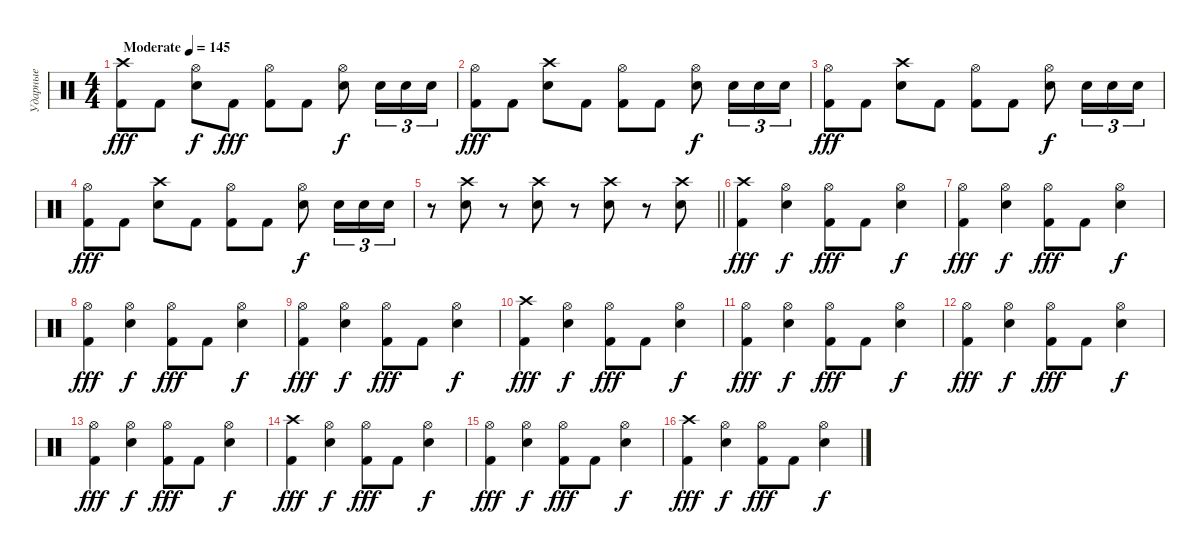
\track ("Ударные" "Ударные") {instrument percussion}
\staff {score}
\articulation defaults
\ts (4 4)
\tempo (145 "Moderate")
\clef neutral
\ks c
("Kick (hit) 2" "Crash high (hit)").8{dy fff} "Kick (hit) 2".8 ("Snare (hit) 2" "Hi-Hat (open)").8{dy f} "Kick (hit) 2".8{dy fff} ("Kick (hit) 2" "Hi-Hat (open)").8 "Kick (hit) 2".8 ("Snare (hit) 2" "Hi-Hat (open)").8{dy f} "Snare (hit) 2".16{tu (3 2)} "Snare (hit) 2".16{tu (3 2)} "Snare (hit) 2".16{tu (3 2)} |
("Kick (hit) 2" "Hi-Hat (open)").8{dy fff} "Kick (hit) 2".8 ("Snare (hit) 2" "Crash high (hit)").8 "Kick (hit) 2".8 ("Kick (hit) 2" "Hi-Hat (open)").8 "Kick (hit) 2".8 ("Snare (hit) 2" "Hi-Hat (open)").8{dy f} "Snare (hit) 2".16{tu (3 2)} "Snare (hit) 2".16{tu (3 2)} "Snare (hit) 2".16{tu (3 2)} |
("Kick (hit) 2" "Hi-Hat (open)").8{dy fff} "Kick (hit) 2".8 ("Snare (hit) 2" "Crash high (hit)").8 "Kick (hit) 2".8 ("Kick (hit) 2" "Hi-Hat (open)").8 "Kick (hit) 2".8 ("Snare (hit) 2" "Hi-Hat (open)").8{dy f} "Snare (hit) 2".16{tu (3 2)} "Snare (hit) 2".16{tu (3 2)} "Snare (hit) 2".16{tu (3 2)} |
("Kick (hit) 2" "Hi-Hat (open)").8{dy fff} "Kick (hit) 2".8 ("Snare (hit) 2" "Crash high (hit)").8 "Kick (hit) 2".8 ("Kick (hit) 2" "Hi-Hat (open)").8 "Kick (hit) 2".8 ("Snare (hit) 2" "Hi-Hat (open)").8{dy f} "Snare (hit) 2".16{tu (3 2)} "Snare (hit) 2".16{tu (3 2)} "Snare (hit) 2".16{tu (3 2)} |
\barLineRight lightlight
r.8 ("Snare (hit) 2" "Crash high (hit)").8 r.8 ("Snare (hit) 2" "Crash high (hit)").8 r.8 ("Snare (hit) 2" "Crash high (hit)").8 r.8 ("Snare (hit) 2" "Crash high (hit)").8 |
("Kick (hit) 2" "Crash high (hit)").4{dy fff} ("Snare (hit) 2" "Hi-Hat (open)").4{dy f} ("Kick (hit) 2" "Hi-Hat (open)").8{dy fff} "Kick (hit) 2".8 ("Snare (hit) 2" "Hi-Hat (open)").4{dy f} |
("Kick (hit) 2" "Hi-Hat (open)").4{dy fff} ("Snare (hit) 2" "Hi-Hat (open)").4{dy f} ("Kick (hit) 2" "Hi-Hat (open)").8{dy fff} "Kick (hit) 2".8 ("Snare (hit) 2" "Hi-Hat (open)").4{dy f} |
("Kick (hit) 2" "Hi-Hat (open)").4{dy fff} ("Snare (hit) 2" "Hi-Hat (open)").4{dy f} ("Kick (hit) 2" "Hi-Hat (open)").8{dy fff} "Kick (hit) 2".8 ("Snare (hit) 2" "Hi-Hat (open)").4{dy f} |
("Kick (hit) 2" "Hi-Hat (open)").4{dy fff} ("Snare (hit) 2" "Hi-Hat (open)").4{dy f} ("Kick (hit) 2" "Hi-Hat (open)").8{dy fff} "Kick (hit) 2".8 ("Snare (hit) 2" "Hi-Hat (open)").4{dy f} |
("Kick (hit) 2" "Crash high (hit)").4{dy fff} ("Snare (hit) 2" "Hi-Hat (open)").4{dy f} ("Kick (hit) 2" "Hi-Hat (open)").8{dy fff} "Kick (hit) 2".8 ("Snare (hit) 2" "Hi-Hat (open)").4{dy f} |
("Kick (hit) 2" "Hi-Hat (open)").4{dy fff} ("Snare (hit) 2" "Hi-Hat (open)").4{dy f} ("Kick (hit) 2" "Hi-Hat (open)").8{dy fff} "Kick (hit) 2".8 ("Snare (hit) 2" "Hi-Hat (open)").4{dy f} |
("Kick (hit) 2" "Hi-Hat (open)").4{dy fff} ("Snare (hit) 2" "Hi-Hat (open)").4{dy f} ("Kick (hit) 2" "Hi-Hat (open)").8{dy fff} "Kick (hit) 2".8 ("Snare (hit) 2" "Hi-Hat (open)").4{dy f} |
("Kick (hit) 2" "Hi-Hat (open)").4{dy fff} ("Snare (hit) 2" "Hi-Hat (open)").4{dy f} ("Kick (hit) 2" "Hi-Hat (open)").8{dy fff} "Kick (hit) 2".8 ("Snare (hit) 2" "Hi-Hat (open)").4{dy f} |
("Kick (hit) 2" "Crash high (hit)").4{dy fff} ("Snare (hit) 2" "Hi-Hat (open)").4{dy f} ("Kick (hit) 2" "Hi-Hat (open)").8{dy fff} "Kick (hit) 2".8 ("Snare (hit) 2" "Hi-Hat (open)").4{dy f} |
("Kick (hit) 2" "Hi-Hat (open)").4{dy fff} ("Snare (hit) 2" "Hi-Hat (open)").4{dy f} ("Kick (hit) 2" "Hi-Hat (open)").8{dy fff} "Kick (hit) 2".8 ("Snare (hit) 2" "Hi-Hat (open)").4{dy f} |
("Kick (hit) 2" "Crash high (hit)").4{dy fff} ("Snare (hit) 2" "Hi-Hat (open)").4{dy f} ("Kick (hit) 2" "Hi-Hat (open)").8{dy fff} "Kick (hit) 2".8 ("Snare (hit) 2" "Hi-Hat (open)").4{dy f}
